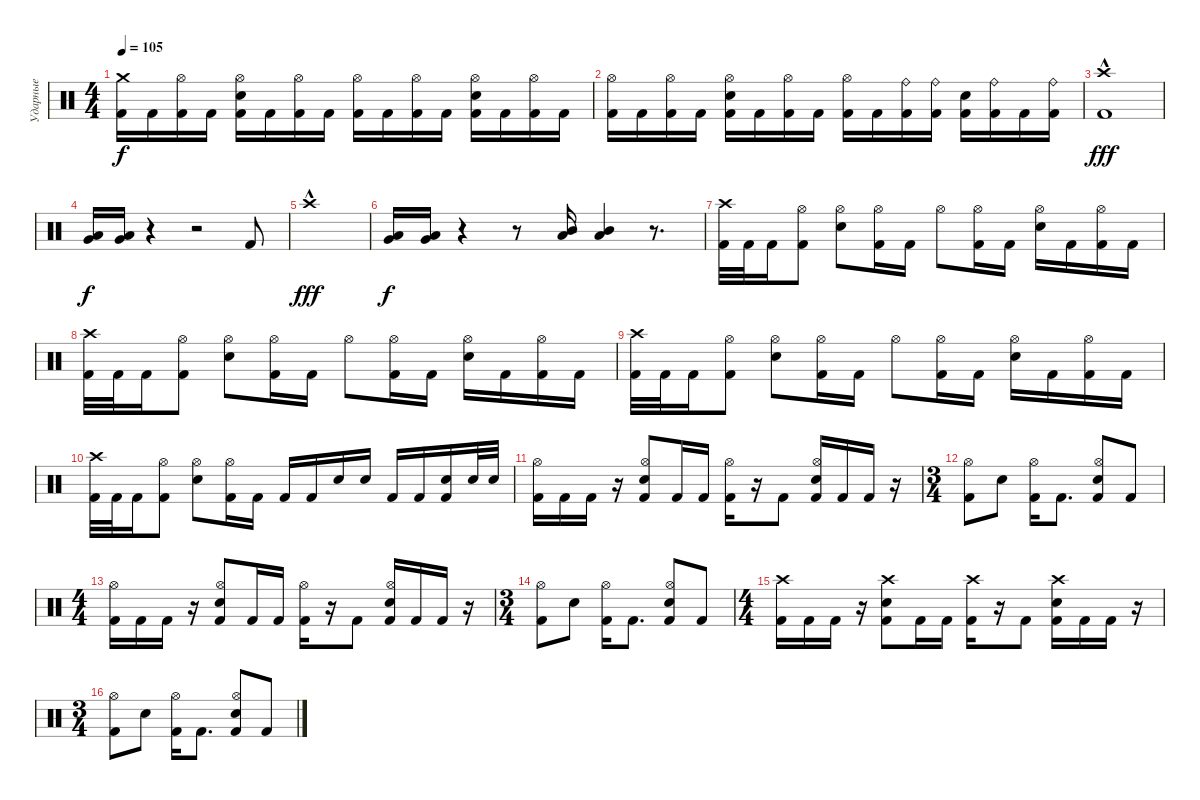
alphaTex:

\track ("Ударные" "Ударные") {instrument percussion}
\staff {score}
\articulation defaults
\ts (4 4)
\tempo 105
\clef neutral
\ks c
("Crash medium (hit)" "Kick (hit) 2").16{dy f} "Kick (hit) 2".16 ("Hi-Hat (open)" "Kick (hit) 2").16 "Kick (hit) 2".16 ("Hi-Hat (open)" "Snare (hit) 2" "Kick (hit) 2").16 "Kick (hit) 2".16 ("Hi-Hat (open)" "Kick (hit) 2").16 "Kick (hit) 2".16 ("Hi-Hat (open)" "Kick (hit) 2").16 "Kick (hit) 2".16 ("Hi-Hat (open)" "Kick (hit) 2").16 "Kick (hit) 2".16 ("Hi-Hat (open)" "Snare (hit) 2" "Kick (hit) 2").16 "Kick (hit) 2".16 ("Hi-Hat (open)" "Kick (hit) 2").16 "Kick (hit) 2".16 |
("Hi-Hat (open)" "Kick (hit) 2").16 "Kick (hit) 2".16 ("Hi-Hat (open)" "Kick (hit) 2").16 "Kick (hit) 2".16 ("Hi-Hat (open)" "Snare (hit) 2" "Kick (hit) 2").16 "Kick (hit) 2".16 ("Hi-Hat (open)" "Kick (hit) 2").16 "Kick (hit) 2".16 ("Hi-Hat (open)" "Kick (hit) 2").16 "Kick (hit) 2".16 ("Ride (bell)" "Kick (hit) 2").16 ("Ride (bell)" "Kick (hit) 2").16 ("Snare (hit) 2" "Kick (hit) 2").16 ("Ride (bell)" "Kick (hit) 2").16 "Kick (hit) 2".16 ("Ride (bell)" "Kick (hit) 2").16 |
("Crash high (hit)"{hac} "Kick (hit) 2").1{dy fff} |
("Very Low Tom (hit)" "Low Tom (hit)").16{dy f} ("Low Tom (hit)" "Very Low Tom (hit)").16 r.4 r.2 "Kick (hit) 2".8 |
"Crash high (hit)"{hac}.1{dy fff} |
("Very Low Tom (hit)" "Low Tom (hit)").16{dy f} ("Low Tom (hit)" "Very Low Tom (hit)").16 r.4 r.8 ("Low Tom (hit)" "Mid Tom (hit)").16 ("Low Tom (hit)" "Mid Tom (hit)").4 r.8{d} |
("Crash high (hit)" "Kick (hit) 2").32 "Kick (hit) 2".32 "Kick (hit) 2".16 ("Hi-Hat (open)" "Kick (hit) 2").8 ("Hi-Hat (open)" "Snare (hit) 2").8 ("Hi-Hat (open)" "Kick (hit) 2").16 "Kick (hit) 2".16 "Hi-Hat (open)".8 ("Hi-Hat (open)" "Kick (hit) 2").16 "Kick (hit) 2".16 ("Hi-Hat (open)" "Snare (hit) 2").16 "Kick (hit) 2".16 ("Hi-Hat (open)" "Kick (hit) 2").16 "Kick (hit) 2".16 |
("Crash high (hit)" "Kick (hit) 2").32 "Kick (hit) 2".32 "Kick (hit) 2".16 ("Hi-Hat (open)" "Kick (hit) 2").8 ("Hi-Hat (open)" "Snare (hit) 2").8 ("Hi-Hat (open)" "Kick (hit) 2").16 "Kick (hit) 2".16 "Hi-Hat (open)".8 ("Hi-Hat (open)" "Kick (hit) 2").16 "Kick (hit) 2".16 ("Hi-Hat (open)" "Snare (hit) 2").16 "Kick (hit) 2".16 ("Hi-Hat (open)" "Kick (hit) 2").16 "Kick (hit) 2".16 |
("Crash high (hit)" "Kick (hit) 2").32 "Kick (hit) 2".32 "Kick (hit) 2".16 ("Hi-Hat (open)" "Kick (hit) 2").8 ("Hi-Hat (open)" "Snare (hit) 2").8 ("Hi-Hat (open)" "Kick (hit) 2").16 "Kick (hit) 2".16 "Hi-Hat (open)".8 ("Hi-Hat (open)" "Kick (hit) 2").16 "Kick (hit) 2".16 ("Hi-Hat (open)" "Snare (hit) 2").16 "Kick (hit) 2".16 ("Hi-Hat (open)" "Kick (hit) 2").16 "Kick (hit) 2".16 |
("Crash high (hit)" "Kick (hit) 2").32 "Kick (hit) 2".32 "Kick (hit) 2".16 ("Hi-Hat (open)" "Kick (hit) 2").8 ("Hi-Hat (open)" "Snare (hit) 2").8 ("Hi-Hat (open)" "Kick (hit) 2").16 "Kick (hit) 2".16 "Kick (hit) 2".16 "Kick (hit) 2".16 "Snare (hit) 2".16 "Snare (hit) 2".16 "Kick (hit) 2".16 "Kick (hit) 2".16 ("Snare (hit) 2" "Kick (hit) 2").16 "Snare (hit) 2".32 "Snare (hit) 2".32 |
("Hi-Hat (open)" "Kick (hit) 2").16 "Kick (hit) 2".16 "Kick (hit) 2".16 r.16 ("Hi-Hat (open)" "Snare (hit) 2" "Kick (hit) 2").8 "Kick (hit) 2".16 "Kick (hit) 2".16 ("Hi-Hat (open)" "Kick (hit) 2").16 r.16 "Kick (hit) 2".8 ("Hi-Hat (open)" "Snare (hit) 2" "Kick (hit) 2").16 "Kick (hit) 2".16 "Kick (hit) 2".16 r.16 |
\ts (3 4)
("Hi-Hat (open)" "Kick (hit) 2").8 "Snare (hit) 2".8 ("Hi-Hat (open)" "Kick (hit) 2").16 "Kick (hit) 2".8{d} ("Hi-Hat (open)" "Snare (hit) 2" "Kick (hit) 2").8 "Kick (hit) 2".8 |
\ts (4 4)
("Hi-Hat (open)" "Kick (hit) 2").16 "Kick (hit) 2".16 "Kick (hit) 2".16 r.16 ("Hi-Hat (open)" "Snare (hit) 2" "Kick (hit) 2").8 "Kick (hit) 2".16 "Kick (hit) 2".16 ("Hi-Hat (open)" "Kick (hit) 2").16 r.16 "Kick (hit) 2".8 ("Hi-Hat (open)" "Snare (hit) 2" "Kick (hit) 2").16 "Kick (hit) 2".16 "Kick (hit) 2".16 r.16 |
\ts (3 4)
("Hi-Hat (open)" "Kick (hit) 2").8 "Snare (hit) 2".8 ("Hi-Hat (open)" "Kick (hit) 2").16 "Kick (hit) 2".8{d} ("Hi-Hat (open)" "Snare (hit) 2" "Kick (hit) 2").8 "Kick (hit) 2".8 |
\ts (4 4)
("Crash high (hit)" "Kick (hit) 2").16 "Kick (hit) 2".16 "Kick (hit) 2".16 r.16 ("Crash high (hit)" "Snare (hit) 2" "Kick (hit) 2").8 "Kick (hit) 2".16 "Kick (hit) 2".16 ("Crash high (hit)" "Kick (hit) 2").16 r.16 "Kick (hit) 2".8 ("Crash high (hit)" "Snare (hit) 2" "Kick (hit) 2").16 "Kick (hit) 2".16 "Kick (hit) 2".16 r.16 |
\ts (3 4)
("Hi-Hat (open)" "Kick (hit) 2").8 "Snare (hit) 2".8 ("Hi-Hat (open)" "Kick (hit) 2").16 "Kick (hit) 2".8{d} ("Hi-Hat (open)" "Snare (hit) 2" "Kick (hit) 2").8 "Kick (hit) 2".8
